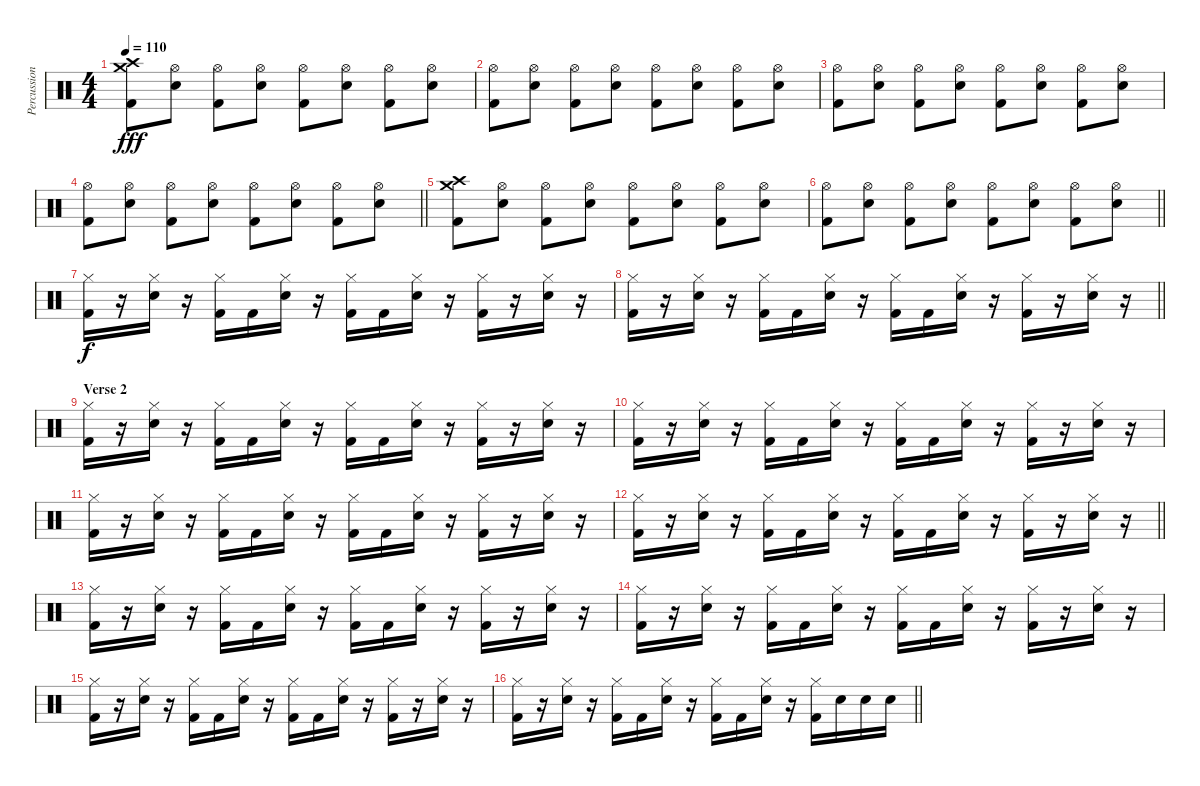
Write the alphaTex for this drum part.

\track ("Percussion" "Percussion") {instrument percussion}
\staff {score}
\articulation defaults
\ts (4 4)
\tempo 110
\clef neutral
\ks c
("Kick (hit) 2" "Crash medium (hit)" "Crash high (hit)").8{dy fff} ("Electric Snare (hit)" "Hi-Hat (open)").8 ("Kick (hit) 2" "Hi-Hat (open)").8 ("Electric Snare (hit)" "Hi-Hat (open)").8 ("Kick (hit) 2" "Hi-Hat (open)").8 ("Electric Snare (hit)" "Hi-Hat (open)").8 ("Kick (hit) 2" "Hi-Hat (open)").8 ("Electric Snare (hit)" "Hi-Hat (open)").8 |
("Kick (hit) 2" "Hi-Hat (open)").8 ("Electric Snare (hit)" "Hi-Hat (open)").8 ("Kick (hit) 2" "Hi-Hat (open)").8 ("Electric Snare (hit)" "Hi-Hat (open)").8 ("Kick (hit) 2" "Hi-Hat (open)").8 ("Electric Snare (hit)" "Hi-Hat (open)").8 ("Kick (hit) 2" "Hi-Hat (open)").8 ("Electric Snare (hit)" "Hi-Hat (open)").8 |
("Kick (hit) 2" "Hi-Hat (open)").8 ("Electric Snare (hit)" "Hi-Hat (open)").8 ("Kick (hit) 2" "Hi-Hat (open)").8 ("Electric Snare (hit)" "Hi-Hat (open)").8 ("Kick (hit) 2" "Hi-Hat (open)").8 ("Electric Snare (hit)" "Hi-Hat (open)").8 ("Kick (hit) 2" "Hi-Hat (open)").8 ("Electric Snare (hit)" "Hi-Hat (open)").8 |
\barLineRight lightlight
("Kick (hit) 2" "Hi-Hat (open)").8 ("Electric Snare (hit)" "Hi-Hat (open)").8 ("Kick (hit) 2" "Hi-Hat (open)").8 ("Electric Snare (hit)" "Hi-Hat (open)").8 ("Kick (hit) 2" "Hi-Hat (open)").8 ("Electric Snare (hit)" "Hi-Hat (open)").8 ("Kick (hit) 2" "Hi-Hat (open)").8 ("Electric Snare (hit)" "Hi-Hat (open)").8 |
("Kick (hit) 2" "Crash medium (hit)" "Crash high (hit)").8 ("Electric Snare (hit)" "Hi-Hat (open)").8 ("Kick (hit) 2" "Hi-Hat (open)").8 ("Electric Snare (hit)" "Hi-Hat (open)").8 ("Kick (hit) 2" "Hi-Hat (open)").8 ("Electric Snare (hit)" "Hi-Hat (open)").8 ("Kick (hit) 2" "Hi-Hat (open)").8 ("Electric Snare (hit)" "Hi-Hat (open)").8 |
\barLineRight lightlight
("Kick (hit) 2" "Hi-Hat (open)").8 ("Electric Snare (hit)" "Hi-Hat (open)").8 ("Kick (hit) 2" "Hi-Hat (open)").8 ("Electric Snare (hit)" "Hi-Hat (open)").8 ("Kick (hit) 2" "Hi-Hat (open)").8 ("Electric Snare (hit)" "Hi-Hat (open)").8 ("Kick (hit) 2" "Hi-Hat (open)").8 ("Electric Snare (hit)" "Hi-Hat (open)").8 |
("Kick (hit) 2" "Hi-Hat (closed)").16{dy f} r.16 ("Electric Snare (hit)" "Hi-Hat (closed)").16 r.16 ("Kick (hit) 2" "Hi-Hat (closed)").16 "Kick (hit) 2".16 ("Electric Snare (hit)" "Hi-Hat (closed)").16 r.16 ("Kick (hit) 2" "Hi-Hat (closed)").16 "Kick (hit) 2".16 ("Electric Snare (hit)" "Hi-Hat (closed)").16 r.16 ("Kick (hit) 2" "Hi-Hat (closed)").16 r.16 ("Electric Snare (hit)" "Hi-Hat (closed)").16 r.16 |
\barLineRight lightlight
("Kick (hit) 2" "Hi-Hat (closed)").16 r.16 ("Electric Snare (hit)" "Hi-Hat (closed)").16 r.16 ("Kick (hit) 2" "Hi-Hat (closed)").16 "Kick (hit) 2".16 ("Electric Snare (hit)" "Hi-Hat (closed)").16 r.16 ("Kick (hit) 2" "Hi-Hat (closed)").16 "Kick (hit) 2".16 ("Electric Snare (hit)" "Hi-Hat (closed)").16 r.16 ("Kick (hit) 2" "Hi-Hat (closed)").16 r.16 ("Electric Snare (hit)" "Hi-Hat (closed)").16 r.16 |
\section ("" "Verse 2")
("Kick (hit) 2" "Hi-Hat (closed)").16 r.16 ("Electric Snare (hit)" "Hi-Hat (closed)").16 r.16 ("Kick (hit) 2" "Hi-Hat (closed)").16 "Kick (hit) 2".16 ("Electric Snare (hit)" "Hi-Hat (closed)").16 r.16 ("Kick (hit) 2" "Hi-Hat (closed)").16 "Kick (hit) 2".16 ("Electric Snare (hit)" "Hi-Hat (closed)").16 r.16 ("Kick (hit) 2" "Hi-Hat (closed)").16 r.16 ("Electric Snare (hit)" "Hi-Hat (closed)").16 r.16 |
("Kick (hit) 2" "Hi-Hat (closed)").16 r.16 ("Electric Snare (hit)" "Hi-Hat (closed)").16 r.16 ("Kick (hit) 2" "Hi-Hat (closed)").16 "Kick (hit) 2".16 ("Electric Snare (hit)" "Hi-Hat (closed)").16 r.16 ("Kick (hit) 2" "Hi-Hat (closed)").16 "Kick (hit) 2".16 ("Electric Snare (hit)" "Hi-Hat (closed)").16 r.16 ("Kick (hit) 2" "Hi-Hat (closed)").16 r.16 ("Electric Snare (hit)" "Hi-Hat (closed)").16 r.16 |
("Kick (hit) 2" "Hi-Hat (closed)").16 r.16 ("Electric Snare (hit)" "Hi-Hat (closed)").16 r.16 ("Kick (hit) 2" "Hi-Hat (closed)").16 "Kick (hit) 2".16 ("Electric Snare (hit)" "Hi-Hat (closed)").16 r.16 ("Kick (hit) 2" "Hi-Hat (closed)").16 "Kick (hit) 2".16 ("Electric Snare (hit)" "Hi-Hat (closed)").16 r.16 ("Kick (hit) 2" "Hi-Hat (closed)").16 r.16 ("Electric Snare (hit)" "Hi-Hat (closed)").16 r.16 |
\barLineRight lightlight
("Kick (hit) 2" "Hi-Hat (closed)").16 r.16 ("Electric Snare (hit)" "Hi-Hat (closed)").16 r.16 ("Kick (hit) 2" "Hi-Hat (closed)").16 "Kick (hit) 2".16 ("Electric Snare (hit)" "Hi-Hat (closed)").16 r.16 ("Kick (hit) 2" "Hi-Hat (closed)").16 "Kick (hit) 2".16 ("Electric Snare (hit)" "Hi-Hat (closed)").16 r.16 ("Kick (hit) 2" "Hi-Hat (closed)").16 r.16 ("Electric Snare (hit)" "Hi-Hat (closed)").16 r.16 |
("Kick (hit) 2" "Hi-Hat (closed)").16 r.16 ("Electric Snare (hit)" "Hi-Hat (closed)").16 r.16 ("Kick (hit) 2" "Hi-Hat (closed)").16 "Kick (hit) 2".16 ("Electric Snare (hit)" "Hi-Hat (closed)").16 r.16 ("Kick (hit) 2" "Hi-Hat (closed)").16 "Kick (hit) 2".16 ("Electric Snare (hit)" "Hi-Hat (closed)").16 r.16 ("Kick (hit) 2" "Hi-Hat (closed)").16 r.16 ("Electric Snare (hit)" "Hi-Hat (closed)").16 r.16 |
("Kick (hit) 2" "Hi-Hat (closed)").16 r.16 ("Electric Snare (hit)" "Hi-Hat (closed)").16 r.16 ("Kick (hit) 2" "Hi-Hat (closed)").16 "Kick (hit) 2".16 ("Electric Snare (hit)" "Hi-Hat (closed)").16 r.16 ("Kick (hit) 2" "Hi-Hat (closed)").16 "Kick (hit) 2".16 ("Electric Snare (hit)" "Hi-Hat (closed)").16 r.16 ("Kick (hit) 2" "Hi-Hat (closed)").16 r.16 ("Electric Snare (hit)" "Hi-Hat (closed)").16 r.16 |
("Kick (hit) 2" "Hi-Hat (closed)").16 r.16 ("Electric Snare (hit)" "Hi-Hat (closed)").16 r.16 ("Kick (hit) 2" "Hi-Hat (closed)").16 "Kick (hit) 2".16 ("Electric Snare (hit)" "Hi-Hat (closed)").16 r.16 ("Kick (hit) 2" "Hi-Hat (closed)").16 "Kick (hit) 2".16 ("Electric Snare (hit)" "Hi-Hat (closed)").16 r.16 ("Kick (hit) 2" "Hi-Hat (closed)").16 r.16 ("Electric Snare (hit)" "Hi-Hat (closed)").16 r.16 |
\barLineRight lightlight
("Kick (hit) 2" "Hi-Hat (closed)").16 r.16 ("Electric Snare (hit)" "Hi-Hat (closed)").16 r.16 ("Kick (hit) 2" "Hi-Hat (closed)").16 "Kick (hit) 2".16 ("Electric Snare (hit)" "Hi-Hat (closed)").16 r.16 ("Kick (hit) 2" "Hi-Hat (closed)").16 "Kick (hit) 2".16 ("Electric Snare (hit)" "Hi-Hat (closed)").16 r.16 ("Kick (hit) 2" "Hi-Hat (closed)").16 "Electric Snare (hit)".16 "Electric Snare (hit)".16 "Electric Snare (hit)".16
